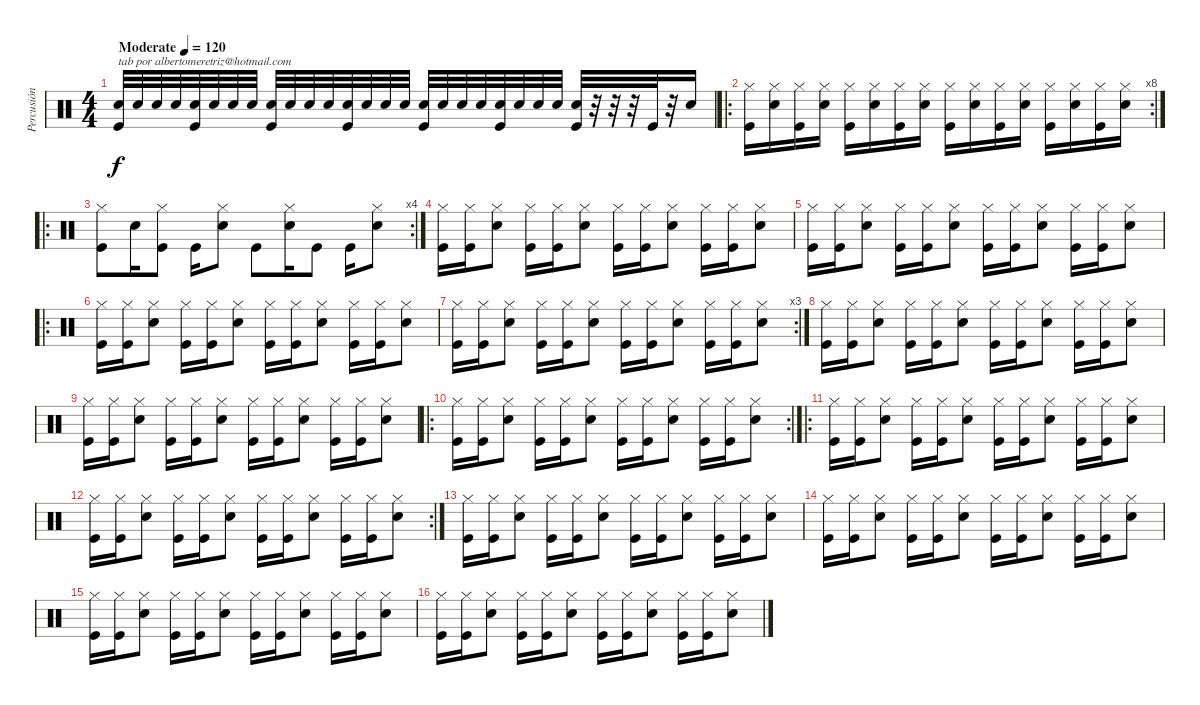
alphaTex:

\track ("Percusión" "Percusión") {instrument percussion}
\staff {score}
\articulation defaults
\ts (4 4)
\tempo (120 "Moderate")
\clef neutral
\ks c
("Electric Snare (hit)" "Kick (hit)").32{txt "tab por albertomeretriz@hotmail.com" dy f} "Electric Snare (hit)".32 "Electric Snare (hit)".32 "Electric Snare (hit)".32 ("Electric Snare (hit)" "Kick (hit)").32 "Electric Snare (hit)".32 "Electric Snare (hit)".32 "Electric Snare (hit)".32 ("Electric Snare (hit)" "Kick (hit)").32 "Electric Snare (hit)".32 "Electric Snare (hit)".32 "Electric Snare (hit)".32 ("Electric Snare (hit)" "Kick (hit)").32 "Electric Snare (hit)".32 "Electric Snare (hit)".32 "Electric Snare (hit)".32 ("Electric Snare (hit)" "Kick (hit)").32 "Electric Snare (hit)".32 "Electric Snare (hit)".32 "Electric Snare (hit)".32 ("Electric Snare (hit)" "Kick (hit)").32 "Electric Snare (hit)".32 "Electric Snare (hit)".32 "Electric Snare (hit)".32 ("Electric Snare (hit)" "Kick (hit)").32 r.32 r.32 r.32 "Kick (hit)".32 r.32 "Electric Snare (hit)".16 |
\ro
\rc 8
("Hi-Hat (closed)" "Kick (hit)").16 ("Hi-Hat (closed)" "Electric Snare (hit)").16 ("Hi-Hat (closed)" "Kick (hit)").16 ("Hi-Hat (closed)" "Electric Snare (hit)").16 ("Hi-Hat (closed)" "Kick (hit)").16 ("Hi-Hat (closed)" "Electric Snare (hit)").16 ("Hi-Hat (closed)" "Kick (hit)").16 ("Hi-Hat (closed)" "Electric Snare (hit)").16 ("Hi-Hat (closed)" "Kick (hit)").16 ("Hi-Hat (closed)" "Electric Snare (hit)").16 ("Hi-Hat (closed)" "Kick (hit)").16 ("Hi-Hat (closed)" "Electric Snare (hit)").16 ("Hi-Hat (closed)" "Kick (hit)").16 ("Hi-Hat (closed)" "Electric Snare (hit)").16 ("Hi-Hat (closed)" "Kick (hit)").16 ("Hi-Hat (closed)" "Electric Snare (hit)").16 |
\ro
\rc 4
("Hi-Hat (closed)" "Kick (hit)").8 "Electric Snare (hit)".16 ("Hi-Hat (closed)" "Kick (hit)").8 "Kick (hit)".16 ("Hi-Hat (closed)" "Electric Snare (hit)").8 "Kick (hit)".8 ("Hi-Hat (closed)" "Electric Snare (hit)").16 "Kick (hit)".8 "Kick (hit)".16 ("Hi-Hat (closed)" "Electric Snare (hit)").8 |
("Hi-Hat (closed)" "Kick (hit)").16 ("Hi-Hat (closed)" "Kick (hit)").16 ("Hi-Hat (closed)" "Electric Snare (hit)").8 ("Hi-Hat (closed)" "Kick (hit)").16 ("Hi-Hat (closed)" "Kick (hit)").16 ("Hi-Hat (closed)" "Electric Snare (hit)").8 ("Hi-Hat (closed)" "Kick (hit)").16 ("Hi-Hat (closed)" "Kick (hit)").16 ("Hi-Hat (closed)" "Electric Snare (hit)").8 ("Hi-Hat (closed)" "Kick (hit)").16 ("Hi-Hat (closed)" "Kick (hit)").16 ("Hi-Hat (closed)" "Electric Snare (hit)").8 |
("Hi-Hat (closed)" "Kick (hit)").16 ("Hi-Hat (closed)" "Kick (hit)").16 ("Hi-Hat (closed)" "Electric Snare (hit)").8 ("Hi-Hat (closed)" "Kick (hit)").16 ("Hi-Hat (closed)" "Kick (hit)").16 ("Hi-Hat (closed)" "Electric Snare (hit)").8 ("Hi-Hat (closed)" "Kick (hit)").16 ("Hi-Hat (closed)" "Kick (hit)").16 ("Hi-Hat (closed)" "Electric Snare (hit)").8 ("Hi-Hat (closed)" "Kick (hit)").16 ("Hi-Hat (closed)" "Kick (hit)").16 ("Hi-Hat (closed)" "Electric Snare (hit)").8 |
\ro
("Hi-Hat (closed)" "Kick (hit)").16 ("Hi-Hat (closed)" "Kick (hit)").16 ("Hi-Hat (closed)" "Electric Snare (hit)").8 ("Hi-Hat (closed)" "Kick (hit)").16 ("Hi-Hat (closed)" "Kick (hit)").16 ("Hi-Hat (closed)" "Electric Snare (hit)").8 ("Hi-Hat (closed)" "Kick (hit)").16 ("Hi-Hat (closed)" "Kick (hit)").16 ("Hi-Hat (closed)" "Electric Snare (hit)").8 ("Hi-Hat (closed)" "Kick (hit)").16 ("Hi-Hat (closed)" "Kick (hit)").16 ("Hi-Hat (closed)" "Electric Snare (hit)").8 |
\rc 3
("Hi-Hat (closed)" "Kick (hit)").16 ("Hi-Hat (closed)" "Kick (hit)").16 ("Hi-Hat (closed)" "Electric Snare (hit)").8 ("Hi-Hat (closed)" "Kick (hit)").16 ("Hi-Hat (closed)" "Kick (hit)").16 ("Hi-Hat (closed)" "Electric Snare (hit)").8 ("Hi-Hat (closed)" "Kick (hit)").16 ("Hi-Hat (closed)" "Kick (hit)").16 ("Hi-Hat (closed)" "Electric Snare (hit)").8 ("Hi-Hat (closed)" "Kick (hit)").16 ("Hi-Hat (closed)" "Kick (hit)").16 ("Hi-Hat (closed)" "Electric Snare (hit)").8 |
("Hi-Hat (closed)" "Kick (hit)").16 ("Hi-Hat (closed)" "Kick (hit)").16 ("Hi-Hat (closed)" "Electric Snare (hit)").8 ("Hi-Hat (closed)" "Kick (hit)").16 ("Hi-Hat (closed)" "Kick (hit)").16 ("Hi-Hat (closed)" "Electric Snare (hit)").8 ("Hi-Hat (closed)" "Kick (hit)").16 ("Hi-Hat (closed)" "Kick (hit)").16 ("Hi-Hat (closed)" "Electric Snare (hit)").8 ("Hi-Hat (closed)" "Kick (hit)").16 ("Hi-Hat (closed)" "Kick (hit)").16 ("Hi-Hat (closed)" "Electric Snare (hit)").8 |
("Hi-Hat (closed)" "Kick (hit)").16 ("Hi-Hat (closed)" "Kick (hit)").16 ("Hi-Hat (closed)" "Electric Snare (hit)").8 ("Hi-Hat (closed)" "Kick (hit)").16 ("Hi-Hat (closed)" "Kick (hit)").16 ("Hi-Hat (closed)" "Electric Snare (hit)").8 ("Hi-Hat (closed)" "Kick (hit)").16 ("Hi-Hat (closed)" "Kick (hit)").16 ("Hi-Hat (closed)" "Electric Snare (hit)").8 ("Hi-Hat (closed)" "Kick (hit)").16 ("Hi-Hat (closed)" "Kick (hit)").16 ("Hi-Hat (closed)" "Electric Snare (hit)").8 |
\ro
\rc 2
("Hi-Hat (closed)" "Kick (hit)").16 ("Hi-Hat (closed)" "Kick (hit)").16 ("Hi-Hat (closed)" "Electric Snare (hit)").8 ("Hi-Hat (closed)" "Kick (hit)").16 ("Hi-Hat (closed)" "Kick (hit)").16 ("Hi-Hat (closed)" "Electric Snare (hit)").8 ("Hi-Hat (closed)" "Kick (hit)").16 ("Hi-Hat (closed)" "Kick (hit)").16 ("Hi-Hat (closed)" "Electric Snare (hit)").8 ("Hi-Hat (closed)" "Kick (hit)").16 ("Hi-Hat (closed)" "Kick (hit)").16 ("Hi-Hat (closed)" "Electric Snare (hit)").8 |
\ro
("Hi-Hat (closed)" "Kick (hit)").16 ("Hi-Hat (closed)" "Kick (hit)").16 ("Hi-Hat (closed)" "Electric Snare (hit)").8 ("Hi-Hat (closed)" "Kick (hit)").16 ("Hi-Hat (closed)" "Kick (hit)").16 ("Hi-Hat (closed)" "Electric Snare (hit)").8 ("Hi-Hat (closed)" "Kick (hit)").16 ("Hi-Hat (closed)" "Kick (hit)").16 ("Hi-Hat (closed)" "Electric Snare (hit)").8 ("Hi-Hat (closed)" "Kick (hit)").16 ("Hi-Hat (closed)" "Kick (hit)").16 ("Hi-Hat (closed)" "Electric Snare (hit)").8 |
\rc 2
("Hi-Hat (closed)" "Kick (hit)").16 ("Hi-Hat (closed)" "Kick (hit)").16 ("Hi-Hat (closed)" "Electric Snare (hit)").8 ("Hi-Hat (closed)" "Kick (hit)").16 ("Hi-Hat (closed)" "Kick (hit)").16 ("Hi-Hat (closed)" "Electric Snare (hit)").8 ("Hi-Hat (closed)" "Kick (hit)").16 ("Hi-Hat (closed)" "Kick (hit)").16 ("Hi-Hat (closed)" "Electric Snare (hit)").8 ("Hi-Hat (closed)" "Kick (hit)").16 ("Hi-Hat (closed)" "Kick (hit)").16 ("Hi-Hat (closed)" "Electric Snare (hit)").8 |
("Hi-Hat (closed)" "Kick (hit)").16 ("Hi-Hat (closed)" "Kick (hit)").16 ("Hi-Hat (closed)" "Electric Snare (hit)").8 ("Hi-Hat (closed)" "Kick (hit)").16 ("Hi-Hat (closed)" "Kick (hit)").16 ("Hi-Hat (closed)" "Electric Snare (hit)").8 ("Hi-Hat (closed)" "Kick (hit)").16 ("Hi-Hat (closed)" "Kick (hit)").16 ("Hi-Hat (closed)" "Electric Snare (hit)").8 ("Hi-Hat (closed)" "Kick (hit)").16 ("Hi-Hat (closed)" "Kick (hit)").16 ("Hi-Hat (closed)" "Electric Snare (hit)").8 |
("Hi-Hat (closed)" "Kick (hit)").16 ("Hi-Hat (closed)" "Kick (hit)").16 ("Hi-Hat (closed)" "Electric Snare (hit)").8 ("Hi-Hat (closed)" "Kick (hit)").16 ("Hi-Hat (closed)" "Kick (hit)").16 ("Hi-Hat (closed)" "Electric Snare (hit)").8 ("Hi-Hat (closed)" "Kick (hit)").16 ("Hi-Hat (closed)" "Kick (hit)").16 ("Hi-Hat (closed)" "Electric Snare (hit)").8 ("Hi-Hat (closed)" "Kick (hit)").16 ("Hi-Hat (closed)" "Kick (hit)").16 ("Hi-Hat (closed)" "Electric Snare (hit)").8 |
("Hi-Hat (closed)" "Kick (hit)").16 ("Hi-Hat (closed)" "Kick (hit)").16 ("Hi-Hat (closed)" "Electric Snare (hit)").8 ("Hi-Hat (closed)" "Kick (hit)").16 ("Hi-Hat (closed)" "Kick (hit)").16 ("Hi-Hat (closed)" "Electric Snare (hit)").8 ("Hi-Hat (closed)" "Kick (hit)").16 ("Hi-Hat (closed)" "Kick (hit)").16 ("Hi-Hat (closed)" "Electric Snare (hit)").8 ("Hi-Hat (closed)" "Kick (hit)").16 ("Hi-Hat (closed)" "Kick (hit)").16 ("Hi-Hat (closed)" "Electric Snare (hit)").8 |
("Hi-Hat (closed)" "Kick (hit)").16 ("Hi-Hat (closed)" "Kick (hit)").16 ("Hi-Hat (closed)" "Electric Snare (hit)").8 ("Hi-Hat (closed)" "Kick (hit)").16 ("Hi-Hat (closed)" "Kick (hit)").16 ("Hi-Hat (closed)" "Electric Snare (hit)").8 ("Hi-Hat (closed)" "Kick (hit)").16 ("Hi-Hat (closed)" "Kick (hit)").16 ("Hi-Hat (closed)" "Electric Snare (hit)").8 ("Hi-Hat (closed)" "Kick (hit)").16 ("Hi-Hat (closed)" "Kick (hit)").16 ("Hi-Hat (closed)" "Electric Snare (hit)").8
